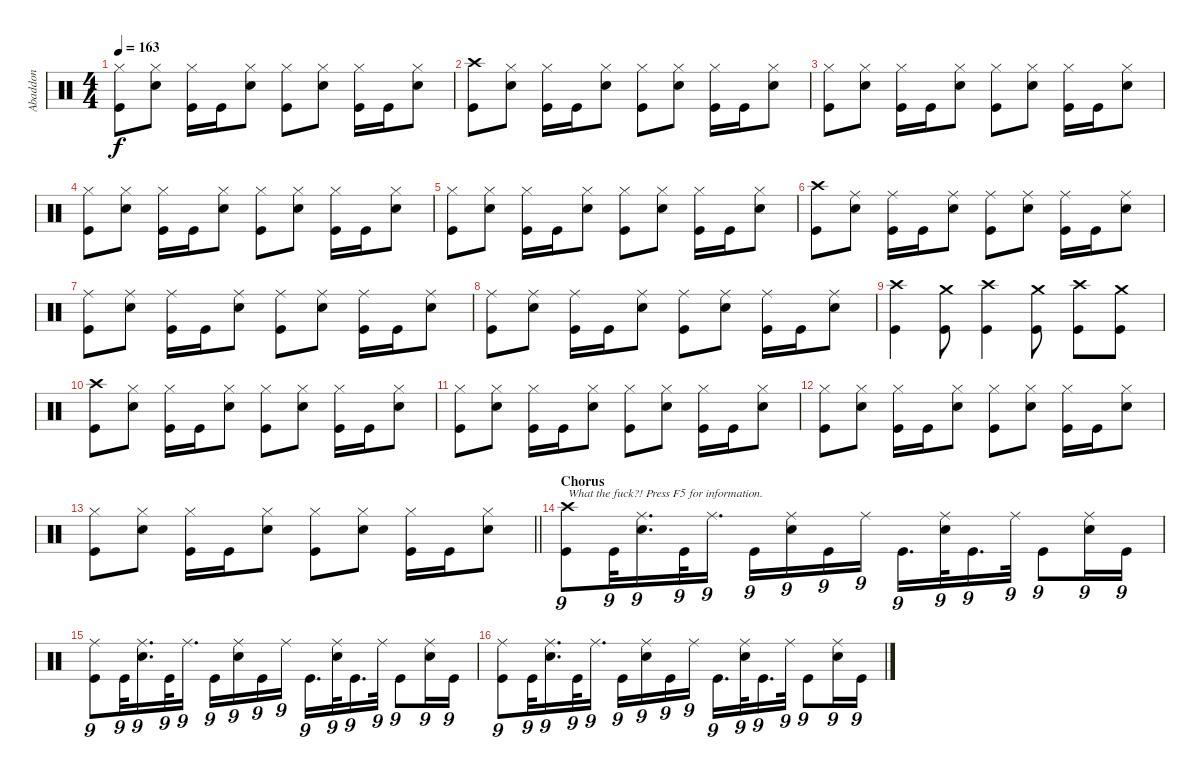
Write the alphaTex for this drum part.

\track ("Abaddon" "Abaddon") {instrument percussion}
\staff {score}
\articulation defaults
\ts (4 4)
\tempo 163
\clef neutral
\ks c
("Hi-Hat (closed)" "Kick (hit)").8{dy f} ("Hi-Hat (closed)" "Snare (hit) 2").8 ("Hi-Hat (closed)" "Kick (hit)").16 "Kick (hit)".16 ("Hi-Hat (closed)" "Snare (hit) 2").8 ("Hi-Hat (closed)" "Kick (hit)").8 ("Hi-Hat (closed)" "Snare (hit) 2").8 ("Hi-Hat (closed)" "Kick (hit)").16 "Kick (hit)".16 ("Hi-Hat (closed)" "Snare (hit) 2").8 |
("Crash high (hit)" "Kick (hit)").8 ("Hi-Hat (closed)" "Snare (hit) 2").8 ("Hi-Hat (closed)" "Kick (hit)").16 "Kick (hit)".16 ("Hi-Hat (closed)" "Snare (hit) 2").8 ("Hi-Hat (closed)" "Kick (hit)").8 ("Hi-Hat (closed)" "Snare (hit) 2").8 ("Hi-Hat (closed)" "Kick (hit)").16 "Kick (hit)".16 ("Hi-Hat (closed)" "Snare (hit) 2").8 |
("Hi-Hat (closed)" "Kick (hit)").8 ("Hi-Hat (closed)" "Snare (hit) 2").8 ("Hi-Hat (closed)" "Kick (hit)").16 "Kick (hit)".16 ("Hi-Hat (closed)" "Snare (hit) 2").8 ("Hi-Hat (closed)" "Kick (hit)").8 ("Hi-Hat (closed)" "Snare (hit) 2").8 ("Hi-Hat (closed)" "Kick (hit)").16 "Kick (hit)".16 ("Hi-Hat (closed)" "Snare (hit) 2").8 |
("Hi-Hat (closed)" "Kick (hit)").8 ("Hi-Hat (closed)" "Snare (hit) 2").8 ("Hi-Hat (closed)" "Kick (hit)").16 "Kick (hit)".16 ("Hi-Hat (closed)" "Snare (hit) 2").8 ("Hi-Hat (closed)" "Kick (hit)").8 ("Hi-Hat (closed)" "Snare (hit) 2").8 ("Hi-Hat (closed)" "Kick (hit)").16 "Kick (hit)".16 ("Hi-Hat (closed)" "Snare (hit) 2").8 |
("Hi-Hat (closed)" "Kick (hit)").8 ("Hi-Hat (closed)" "Snare (hit) 2").8 ("Hi-Hat (closed)" "Kick (hit)").16 "Kick (hit)".16 ("Hi-Hat (closed)" "Snare (hit) 2").8 ("Hi-Hat (closed)" "Kick (hit)").8 ("Hi-Hat (closed)" "Snare (hit) 2").8 ("Hi-Hat (closed)" "Kick (hit)").16 "Kick (hit)".16 ("Hi-Hat (closed)" "Snare (hit) 2").8 |
("Crash high (hit)" "Kick (hit)").8 ("Ride (middle)" "Snare (hit) 2").8 ("Ride (middle)" "Kick (hit)").16 "Kick (hit)".16 ("Ride (middle)" "Snare (hit) 2").8 ("Ride (middle)" "Kick (hit)").8 ("Ride (middle)" "Snare (hit) 2").8 ("Ride (middle)" "Kick (hit)").16 "Kick (hit)".16 ("Ride (middle)" "Snare (hit) 2").8 |
("Ride (middle)" "Kick (hit)").8 ("Ride (middle)" "Snare (hit) 2").8 ("Ride (middle)" "Kick (hit)").16 "Kick (hit)".16 ("Ride (middle)" "Snare (hit) 2").8 ("Ride (middle)" "Kick (hit)").8 ("Ride (middle)" "Snare (hit) 2").8 ("Ride (middle)" "Kick (hit)").16 "Kick (hit)".16 ("Ride (middle)" "Snare (hit) 2").8 |
("Ride (middle)" "Kick (hit)").8 ("Ride (middle)" "Snare (hit) 2").8 ("Ride (middle)" "Kick (hit)").16 "Kick (hit)".16 ("Ride (middle)" "Snare (hit) 2").8 ("Ride (middle)" "Kick (hit)").8 ("Ride (middle)" "Snare (hit) 2").8 ("Ride (middle)" "Kick (hit)").16 "Kick (hit)".16 ("Ride (middle)" "Snare (hit) 2").8 |
("Crash high (hit)" "Kick (hit)").4 ("Crash medium (hit)" "Kick (hit)").8 ("Crash high (hit)" "Kick (hit)").4 ("Crash medium (hit)" "Kick (hit)").8 ("Crash high (hit)" "Kick (hit)").8 ("Crash medium (hit)" "Kick (hit)").8 |
("Crash high (hit)" "Kick (hit)").8 ("Hi-Hat (closed)" "Snare (hit) 2").8 ("Hi-Hat (closed)" "Kick (hit)").16 "Kick (hit)".16 ("Hi-Hat (closed)" "Snare (hit) 2").8 ("Hi-Hat (closed)" "Kick (hit)").8 ("Hi-Hat (closed)" "Snare (hit) 2").8 ("Hi-Hat (closed)" "Kick (hit)").16 "Kick (hit)".16 ("Hi-Hat (closed)" "Snare (hit) 2").8 |
("Hi-Hat (closed)" "Kick (hit)").8 ("Hi-Hat (closed)" "Snare (hit) 2").8 ("Hi-Hat (closed)" "Kick (hit)").16 "Kick (hit)".16 ("Hi-Hat (closed)" "Snare (hit) 2").8 ("Hi-Hat (closed)" "Kick (hit)").8 ("Hi-Hat (closed)" "Snare (hit) 2").8 ("Hi-Hat (closed)" "Kick (hit)").16 "Kick (hit)".16 ("Hi-Hat (closed)" "Snare (hit) 2").8 |
("Hi-Hat (closed)" "Kick (hit)").8 ("Hi-Hat (closed)" "Snare (hit) 2").8 ("Hi-Hat (closed)" "Kick (hit)").16 "Kick (hit)".16 ("Hi-Hat (closed)" "Snare (hit) 2").8 ("Hi-Hat (closed)" "Kick (hit)").8 ("Hi-Hat (closed)" "Snare (hit) 2").8 ("Hi-Hat (closed)" "Kick (hit)").16 "Kick (hit)".16 ("Hi-Hat (closed)" "Snare (hit) 2").8 |
\barLineRight lightlight
("Hi-Hat (closed)" "Kick (hit)").8 ("Hi-Hat (closed)" "Snare (hit) 2").8 ("Hi-Hat (closed)" "Kick (hit)").16 "Kick (hit)".16 ("Hi-Hat (closed)" "Snare (hit) 2").8 ("Hi-Hat (closed)" "Kick (hit)").8 ("Hi-Hat (closed)" "Snare (hit) 2").8 ("Hi-Hat (closed)" "Kick (hit)").16 "Kick (hit)".16 ("Hi-Hat (closed)" "Snare (hit) 2").8 |
\section ("" "Chorus")
("Crash high (hit)" "Kick (hit)").8{tu (9 8) txt "What the fuck?! Press F5 for information."} "Kick (hit)".32{tu (9 8)} ("Ride (middle)" "Snare (hit) 2").16{d tu (9 8)} "Kick (hit)".32{tu (9 8)} "Ride (middle)".16{d tu (9 8)} "Kick (hit)".16{tu (9 8)} ("Ride (middle)" "Snare (hit) 2").16{tu (9 8)} "Kick (hit)".16{tu (9 8)} "Ride (middle)".16{tu (9 8)} "Kick (hit)".16{d tu (9 8)} ("Ride (middle)" "Snare (hit) 2").32{tu (9 8)} "Kick (hit)".16{d tu (9 8)} "Ride (middle)".32{tu (9 8)} "Kick (hit)".8{tu (9 8)} ("Ride (middle)" "Snare (hit) 2").16{tu (9 8)} "Kick (hit)".16{tu (9 8)} |
("Ride (middle)" "Kick (hit)").8{tu (9 8)} "Kick (hit)".32{tu (9 8)} ("Ride (middle)" "Snare (hit) 2").16{d tu (9 8)} "Kick (hit)".32{tu (9 8)} "Ride (middle)".16{d tu (9 8)} "Kick (hit)".16{tu (9 8)} ("Ride (middle)" "Snare (hit) 2").16{tu (9 8)} "Kick (hit)".16{tu (9 8)} "Ride (middle)".16{tu (9 8)} "Kick (hit)".16{d tu (9 8)} ("Ride (middle)" "Snare (hit) 2").32{tu (9 8)} "Kick (hit)".16{d tu (9 8)} "Ride (middle)".32{tu (9 8)} "Kick (hit)".8{tu (9 8)} ("Ride (middle)" "Snare (hit) 2").16{tu (9 8)} "Kick (hit)".16{tu (9 8)} |
("Ride (middle)" "Kick (hit)").8{tu (9 8)} "Kick (hit)".32{tu (9 8)} ("Ride (middle)" "Snare (hit) 2").16{d tu (9 8)} "Kick (hit)".32{tu (9 8)} "Ride (middle)".16{d tu (9 8)} "Kick (hit)".16{tu (9 8)} ("Ride (middle)" "Snare (hit) 2").16{tu (9 8)} "Kick (hit)".16{tu (9 8)} "Ride (middle)".16{tu (9 8)} "Kick (hit)".16{d tu (9 8)} ("Ride (middle)" "Snare (hit) 2").32{tu (9 8)} "Kick (hit)".16{d tu (9 8)} "Ride (middle)".32{tu (9 8)} "Kick (hit)".8{tu (9 8)} ("Ride (middle)" "Snare (hit) 2").16{tu (9 8)} "Kick (hit)".16{tu (9 8)}
